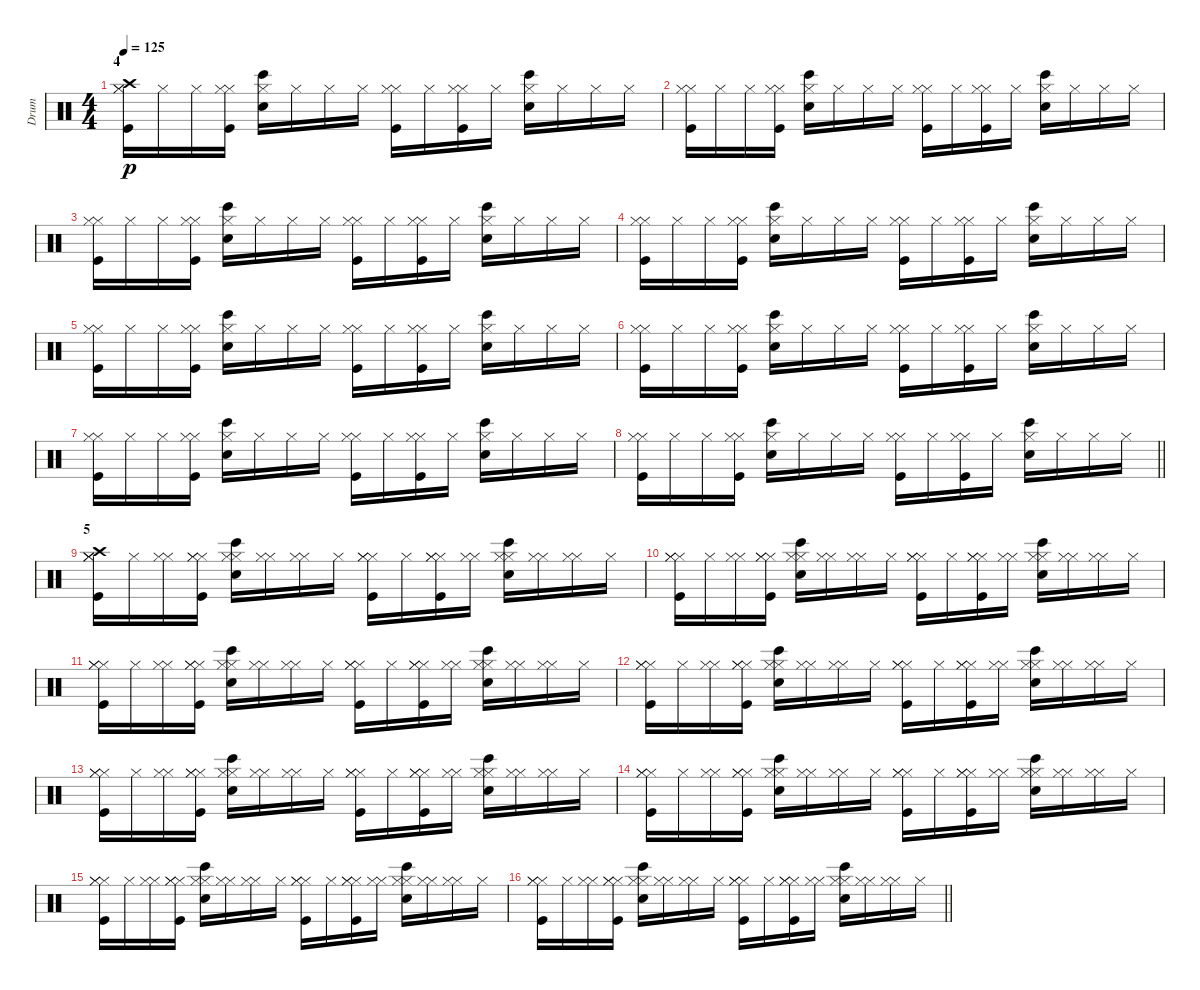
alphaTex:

\track ("Drum" "Drum") {instrument percussion}
\staff {score}
\articulation defaults
\ts (4 4)
\section ("" "4")
\tempo 125
\clef neutral
\ks c
("Hi-Hat (closed)" "Kick (hit)" "Hi-Hat (closed)" "Crash high (hit)").16{dy p} "Hi-Hat (closed)".16 "Hi-Hat (closed)".16 ("Hi-Hat (closed)" "Kick (hit)" "Hi-Hat (closed)").16 ("Snare (hit) 2" "Bongo High (hit)" "Hi-Hat (closed)").16 "Hi-Hat (closed)".16 "Hi-Hat (closed)".16 "Hi-Hat (closed)".16 ("Hi-Hat (closed)" "Kick (hit)" "Hi-Hat (closed)").16 "Hi-Hat (closed)".16 ("Hi-Hat (closed)" "Kick (hit)" "Hi-Hat (closed)").16 "Hi-Hat (closed)".16 ("Snare (hit) 2" "Bongo High (hit)" "Hi-Hat (closed)").16 "Hi-Hat (closed)".16 "Hi-Hat (closed)".16 "Hi-Hat (closed)".16 |
("Hi-Hat (closed)" "Kick (hit)" "Hi-Hat (closed)").16 "Hi-Hat (closed)".16 "Hi-Hat (closed)".16 ("Hi-Hat (closed)" "Kick (hit)" "Hi-Hat (closed)").16 ("Snare (hit) 2" "Bongo High (hit)" "Hi-Hat (closed)").16 "Hi-Hat (closed)".16 "Hi-Hat (closed)".16 "Hi-Hat (closed)".16 ("Hi-Hat (closed)" "Kick (hit)" "Hi-Hat (closed)").16 "Hi-Hat (closed)".16 ("Hi-Hat (closed)" "Kick (hit)" "Hi-Hat (closed)").16 "Hi-Hat (closed)".16 ("Snare (hit) 2" "Bongo High (hit)" "Hi-Hat (closed)").16 "Hi-Hat (closed)".16 "Hi-Hat (closed)".16 "Hi-Hat (closed)".16 |
("Hi-Hat (closed)" "Kick (hit)" "Hi-Hat (closed)").16 "Hi-Hat (closed)".16 "Hi-Hat (closed)".16 ("Hi-Hat (closed)" "Kick (hit)" "Hi-Hat (closed)").16 ("Snare (hit) 2" "Bongo High (hit)" "Hi-Hat (closed)").16 "Hi-Hat (closed)".16 "Hi-Hat (closed)".16 "Hi-Hat (closed)".16 ("Hi-Hat (closed)" "Kick (hit)" "Hi-Hat (closed)").16 "Hi-Hat (closed)".16 ("Hi-Hat (closed)" "Kick (hit)" "Hi-Hat (closed)").16 "Hi-Hat (closed)".16 ("Snare (hit) 2" "Bongo High (hit)" "Hi-Hat (closed)").16 "Hi-Hat (closed)".16 "Hi-Hat (closed)".16 "Hi-Hat (closed)".16 |
("Hi-Hat (closed)" "Kick (hit)" "Hi-Hat (closed)").16 "Hi-Hat (closed)".16 "Hi-Hat (closed)".16 ("Hi-Hat (closed)" "Kick (hit)" "Hi-Hat (closed)").16 ("Snare (hit) 2" "Bongo High (hit)" "Hi-Hat (closed)").16 "Hi-Hat (closed)".16 "Hi-Hat (closed)".16 "Hi-Hat (closed)".16 ("Hi-Hat (closed)" "Kick (hit)" "Hi-Hat (closed)").16 "Hi-Hat (closed)".16 ("Hi-Hat (closed)" "Kick (hit)" "Hi-Hat (closed)").16 "Hi-Hat (closed)".16 ("Snare (hit) 2" "Bongo High (hit)" "Hi-Hat (closed)").16 "Hi-Hat (closed)".16 "Hi-Hat (closed)".16 "Hi-Hat (closed)".16 |
("Hi-Hat (closed)" "Kick (hit)" "Hi-Hat (closed)").16 "Hi-Hat (closed)".16 "Hi-Hat (closed)".16 ("Hi-Hat (closed)" "Kick (hit)" "Hi-Hat (closed)").16 ("Snare (hit) 2" "Bongo High (hit)" "Hi-Hat (closed)").16 "Hi-Hat (closed)".16 "Hi-Hat (closed)".16 "Hi-Hat (closed)".16 ("Hi-Hat (closed)" "Kick (hit)" "Hi-Hat (closed)").16 "Hi-Hat (closed)".16 ("Hi-Hat (closed)" "Kick (hit)" "Hi-Hat (closed)").16 "Hi-Hat (closed)".16 ("Snare (hit) 2" "Bongo High (hit)" "Hi-Hat (closed)").16 "Hi-Hat (closed)".16 "Hi-Hat (closed)".16 "Hi-Hat (closed)".16 |
("Hi-Hat (closed)" "Kick (hit)" "Hi-Hat (closed)").16 "Hi-Hat (closed)".16 "Hi-Hat (closed)".16 ("Hi-Hat (closed)" "Kick (hit)" "Hi-Hat (closed)").16 ("Snare (hit) 2" "Bongo High (hit)" "Hi-Hat (closed)").16 "Hi-Hat (closed)".16 "Hi-Hat (closed)".16 "Hi-Hat (closed)".16 ("Hi-Hat (closed)" "Kick (hit)" "Hi-Hat (closed)").16 "Hi-Hat (closed)".16 ("Hi-Hat (closed)" "Kick (hit)" "Hi-Hat (closed)").16 "Hi-Hat (closed)".16 ("Snare (hit) 2" "Bongo High (hit)" "Hi-Hat (closed)").16 "Hi-Hat (closed)".16 "Hi-Hat (closed)".16 "Hi-Hat (closed)".16 |
("Hi-Hat (closed)" "Kick (hit)" "Hi-Hat (closed)").16 "Hi-Hat (closed)".16 "Hi-Hat (closed)".16 ("Hi-Hat (closed)" "Kick (hit)" "Hi-Hat (closed)").16 ("Snare (hit) 2" "Bongo High (hit)" "Hi-Hat (closed)").16 "Hi-Hat (closed)".16 "Hi-Hat (closed)".16 "Hi-Hat (closed)".16 ("Hi-Hat (closed)" "Kick (hit)" "Hi-Hat (closed)").16 "Hi-Hat (closed)".16 ("Hi-Hat (closed)" "Kick (hit)" "Hi-Hat (closed)").16 "Hi-Hat (closed)".16 ("Snare (hit) 2" "Bongo High (hit)" "Hi-Hat (closed)").16 "Hi-Hat (closed)".16 "Hi-Hat (closed)".16 "Hi-Hat (closed)".16 |
\barLineRight lightlight
("Hi-Hat (closed)" "Kick (hit)" "Hi-Hat (closed)").16 "Hi-Hat (closed)".16 "Hi-Hat (closed)".16 ("Hi-Hat (closed)" "Kick (hit)" "Hi-Hat (closed)").16 ("Snare (hit) 2" "Bongo High (hit)" "Hi-Hat (closed)").16 "Hi-Hat (closed)".16 "Hi-Hat (closed)".16 "Hi-Hat (closed)".16 ("Hi-Hat (closed)" "Kick (hit)" "Hi-Hat (closed)").16 "Hi-Hat (closed)".16 ("Hi-Hat (closed)" "Kick (hit)" "Hi-Hat (closed)").16 "Hi-Hat (closed)".16 ("Snare (hit) 2" "Bongo High (hit)" "Hi-Hat (closed)").16 "Hi-Hat (closed)".16 "Hi-Hat (closed)".16 "Hi-Hat (closed)".16 |
\section ("" "5")
("Hi-Hat (closed)" "Kick (hit)" "Hi-Hat (closed)" "Crash high (hit)" "Hi-Hat (closed)").16 "Hi-Hat (closed)".16 ("Hi-Hat (closed)" "Hi-Hat (closed)").16 ("Hi-Hat (closed)" "Kick (hit)" "Hi-Hat (closed)" "Hi-Hat (closed)").16 ("Snare (hit) 2" "Bongo High (hit)" "Hi-Hat (closed)" "Hi-Hat (closed)").16 ("Hi-Hat (closed)" "Hi-Hat (closed)").16 ("Hi-Hat (closed)" "Hi-Hat (closed)").16 "Hi-Hat (closed)".16 ("Hi-Hat (closed)" "Kick (hit)" "Hi-Hat (closed)" "Hi-Hat (closed)").16 "Hi-Hat (closed)".16 ("Hi-Hat (closed)" "Kick (hit)" "Hi-Hat (closed)" "Hi-Hat (closed)").16 ("Hi-Hat (closed)" "Hi-Hat (closed)").16 ("Snare (hit) 2" "Bongo High (hit)" "Hi-Hat (closed)" "Hi-Hat (closed)").16 ("Hi-Hat (closed)" "Hi-Hat (closed)").16 ("Hi-Hat (closed)" "Hi-Hat (closed)").16 "Hi-Hat (closed)".16 |
("Hi-Hat (closed)" "Kick (hit)" "Hi-Hat (closed)" "Hi-Hat (closed)").16 "Hi-Hat (closed)".16 ("Hi-Hat (closed)" "Hi-Hat (closed)").16 ("Hi-Hat (closed)" "Kick (hit)" "Hi-Hat (closed)" "Hi-Hat (closed)").16 ("Snare (hit) 2" "Bongo High (hit)" "Hi-Hat (closed)" "Hi-Hat (closed)").16 ("Hi-Hat (closed)" "Hi-Hat (closed)").16 ("Hi-Hat (closed)" "Hi-Hat (closed)").16 "Hi-Hat (closed)".16 ("Hi-Hat (closed)" "Kick (hit)" "Hi-Hat (closed)" "Hi-Hat (closed)").16 "Hi-Hat (closed)".16 ("Hi-Hat (closed)" "Kick (hit)" "Hi-Hat (closed)" "Hi-Hat (closed)").16 ("Hi-Hat (closed)" "Hi-Hat (closed)").16 ("Snare (hit) 2" "Bongo High (hit)" "Hi-Hat (closed)" "Hi-Hat (closed)").16 ("Hi-Hat (closed)" "Hi-Hat (closed)").16 ("Hi-Hat (closed)" "Hi-Hat (closed)").16 "Hi-Hat (closed)".16 |
("Hi-Hat (closed)" "Kick (hit)" "Hi-Hat (closed)" "Hi-Hat (closed)").16 "Hi-Hat (closed)".16 ("Hi-Hat (closed)" "Hi-Hat (closed)").16 ("Hi-Hat (closed)" "Kick (hit)" "Hi-Hat (closed)" "Hi-Hat (closed)").16 ("Snare (hit) 2" "Bongo High (hit)" "Hi-Hat (closed)" "Hi-Hat (closed)").16 ("Hi-Hat (closed)" "Hi-Hat (closed)").16 ("Hi-Hat (closed)" "Hi-Hat (closed)").16 "Hi-Hat (closed)".16 ("Hi-Hat (closed)" "Kick (hit)" "Hi-Hat (closed)" "Hi-Hat (closed)").16 "Hi-Hat (closed)".16 ("Hi-Hat (closed)" "Kick (hit)" "Hi-Hat (closed)" "Hi-Hat (closed)").16 ("Hi-Hat (closed)" "Hi-Hat (closed)").16 ("Snare (hit) 2" "Bongo High (hit)" "Hi-Hat (closed)" "Hi-Hat (closed)").16 ("Hi-Hat (closed)" "Hi-Hat (closed)").16 ("Hi-Hat (closed)" "Hi-Hat (closed)").16 "Hi-Hat (closed)".16 |
("Hi-Hat (closed)" "Kick (hit)" "Hi-Hat (closed)" "Hi-Hat (closed)").16 "Hi-Hat (closed)".16 ("Hi-Hat (closed)" "Hi-Hat (closed)").16 ("Hi-Hat (closed)" "Kick (hit)" "Hi-Hat (closed)" "Hi-Hat (closed)").16 ("Snare (hit) 2" "Bongo High (hit)" "Hi-Hat (closed)" "Hi-Hat (closed)").16 ("Hi-Hat (closed)" "Hi-Hat (closed)").16 ("Hi-Hat (closed)" "Hi-Hat (closed)").16 "Hi-Hat (closed)".16 ("Hi-Hat (closed)" "Kick (hit)" "Hi-Hat (closed)" "Hi-Hat (closed)").16 "Hi-Hat (closed)".16 ("Hi-Hat (closed)" "Kick (hit)" "Hi-Hat (closed)" "Hi-Hat (closed)").16 ("Hi-Hat (closed)" "Hi-Hat (closed)").16 ("Snare (hit) 2" "Bongo High (hit)" "Hi-Hat (closed)" "Hi-Hat (closed)").16 ("Hi-Hat (closed)" "Hi-Hat (closed)").16 ("Hi-Hat (closed)" "Hi-Hat (closed)").16 "Hi-Hat (closed)".16 |
("Hi-Hat (closed)" "Kick (hit)" "Hi-Hat (closed)" "Hi-Hat (closed)").16 "Hi-Hat (closed)".16 ("Hi-Hat (closed)" "Hi-Hat (closed)").16 ("Hi-Hat (closed)" "Kick (hit)" "Hi-Hat (closed)" "Hi-Hat (closed)").16 ("Snare (hit) 2" "Bongo High (hit)" "Hi-Hat (closed)" "Hi-Hat (closed)").16 ("Hi-Hat (closed)" "Hi-Hat (closed)").16 ("Hi-Hat (closed)" "Hi-Hat (closed)").16 "Hi-Hat (closed)".16 ("Hi-Hat (closed)" "Kick (hit)" "Hi-Hat (closed)" "Hi-Hat (closed)").16 "Hi-Hat (closed)".16 ("Hi-Hat (closed)" "Kick (hit)" "Hi-Hat (closed)" "Hi-Hat (closed)").16 ("Hi-Hat (closed)" "Hi-Hat (closed)").16 ("Snare (hit) 2" "Bongo High (hit)" "Hi-Hat (closed)" "Hi-Hat (closed)").16 ("Hi-Hat (closed)" "Hi-Hat (closed)").16 ("Hi-Hat (closed)" "Hi-Hat (closed)").16 "Hi-Hat (closed)".16 |
("Hi-Hat (closed)" "Kick (hit)" "Hi-Hat (closed)" "Hi-Hat (closed)").16 "Hi-Hat (closed)".16 ("Hi-Hat (closed)" "Hi-Hat (closed)").16 ("Hi-Hat (closed)" "Kick (hit)" "Hi-Hat (closed)" "Hi-Hat (closed)").16 ("Snare (hit) 2" "Bongo High (hit)" "Hi-Hat (closed)" "Hi-Hat (closed)").16 ("Hi-Hat (closed)" "Hi-Hat (closed)").16 ("Hi-Hat (closed)" "Hi-Hat (closed)").16 "Hi-Hat (closed)".16 ("Hi-Hat (closed)" "Kick (hit)" "Hi-Hat (closed)" "Hi-Hat (closed)").16 "Hi-Hat (closed)".16 ("Hi-Hat (closed)" "Kick (hit)" "Hi-Hat (closed)" "Hi-Hat (closed)").16 ("Hi-Hat (closed)" "Hi-Hat (closed)").16 ("Snare (hit) 2" "Bongo High (hit)" "Hi-Hat (closed)" "Hi-Hat (closed)").16 ("Hi-Hat (closed)" "Hi-Hat (closed)").16 ("Hi-Hat (closed)" "Hi-Hat (closed)").16 "Hi-Hat (closed)".16 |
("Hi-Hat (closed)" "Kick (hit)" "Hi-Hat (closed)" "Hi-Hat (closed)").16 "Hi-Hat (closed)".16 ("Hi-Hat (closed)" "Hi-Hat (closed)").16 ("Hi-Hat (closed)" "Kick (hit)" "Hi-Hat (closed)" "Hi-Hat (closed)").16 ("Snare (hit) 2" "Bongo High (hit)" "Hi-Hat (closed)" "Hi-Hat (closed)").16 ("Hi-Hat (closed)" "Hi-Hat (closed)").16 ("Hi-Hat (closed)" "Hi-Hat (closed)").16 "Hi-Hat (closed)".16 ("Hi-Hat (closed)" "Kick (hit)" "Hi-Hat (closed)" "Hi-Hat (closed)").16 "Hi-Hat (closed)".16 ("Hi-Hat (closed)" "Kick (hit)" "Hi-Hat (closed)" "Hi-Hat (closed)").16 ("Hi-Hat (closed)" "Hi-Hat (closed)").16 ("Snare (hit) 2" "Bongo High (hit)" "Hi-Hat (closed)" "Hi-Hat (closed)").16 ("Hi-Hat (closed)" "Hi-Hat (closed)").16 ("Hi-Hat (closed)" "Hi-Hat (closed)").16 "Hi-Hat (closed)".16 |
\barLineRight lightlight
("Hi-Hat (closed)" "Kick (hit)" "Hi-Hat (closed)" "Hi-Hat (closed)").16 "Hi-Hat (closed)".16 ("Hi-Hat (closed)" "Hi-Hat (closed)").16 ("Hi-Hat (closed)" "Kick (hit)" "Hi-Hat (closed)" "Hi-Hat (closed)").16 ("Snare (hit) 2" "Bongo High (hit)" "Hi-Hat (closed)" "Hi-Hat (closed)").16 ("Hi-Hat (closed)" "Hi-Hat (closed)").16 ("Hi-Hat (closed)" "Hi-Hat (closed)").16 "Hi-Hat (closed)".16 ("Hi-Hat (closed)" "Kick (hit)" "Hi-Hat (closed)" "Hi-Hat (closed)").16 "Hi-Hat (closed)".16 ("Hi-Hat (closed)" "Kick (hit)" "Hi-Hat (closed)" "Hi-Hat (closed)").16 ("Hi-Hat (closed)" "Hi-Hat (closed)").16 ("Snare (hit) 2" "Bongo High (hit)" "Hi-Hat (closed)" "Hi-Hat (closed)").16 ("Hi-Hat (closed)" "Hi-Hat (closed)").16 ("Hi-Hat (closed)" "Hi-Hat (closed)").16 "Hi-Hat (closed)".16
